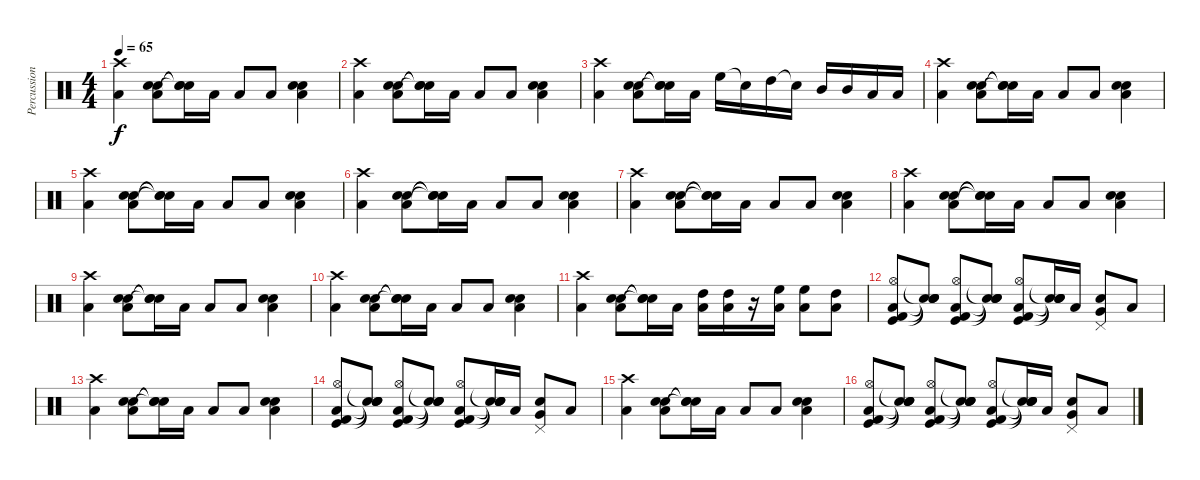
\track ("Percussion" "Percussion") {instrument percussion}
\staff {score}
\articulation defaults
\ts (4 4)
\tempo 65
\clef neutral
\ks c
("Crash high (hit)" "Low Tom (hit)").4{dy f} ("Snare (hit) 2" "Electric Snare (hit)" "Low Tom (hit)").8 ("Snare (hit)"{t} "Snare (hit)"{t} "Snare (hit)"{t}).16 "Low Tom (hit)".16 "Low Tom (hit)".8 "Low Tom (hit)".8 ("Snare (hit) 2" "Electric Snare (hit)" "Low Tom (hit)").4 |
("Crash high (hit)" "Low Tom (hit)").4 ("Snare (hit) 2" "Electric Snare (hit)" "Low Tom (hit)").8 ("Snare (hit)"{t} "Snare (hit)"{t} "Snare (hit)"{t}).16 "Low Tom (hit)".16 "Low Tom (hit)".8 "Low Tom (hit)".8 ("Snare (hit) 2" "Electric Snare (hit)" "Low Tom (hit)").4 |
("Crash high (hit)" "Low Tom (hit)").4 ("Electric Snare (hit)" "Snare (hit) 2" "Low Tom (hit)").8 ("Snare (hit)"{t} "Snare (hit)"{t} "Snare (hit)"{t}).16 "Low Tom (hit)".16 "High Floor Tom (hit)".16 "Snare (hit)"{t}.16 "High Tom (hit)".16 "Snare (hit)"{t}.16 "Mid Tom (hit)".16 "Mid Tom (hit)".16 "Low Tom (hit)".16 "Low Tom (hit)".16 |
("Crash high (hit)" "Low Tom (hit)").4 ("Snare (hit) 2" "Electric Snare (hit)" "Low Tom (hit)").8 ("Snare (hit)"{t} "Snare (hit)"{t} "Snare (hit)"{t}).16 "Low Tom (hit)".16 "Low Tom (hit)".8 "Low Tom (hit)".8 ("Snare (hit) 2" "Electric Snare (hit)" "Low Tom (hit)").4 |
("Crash high (hit)" "Low Tom (hit)").4 ("Snare (hit) 2" "Electric Snare (hit)" "Low Tom (hit)").8 ("Snare (hit)"{t} "Snare (hit)"{t} "Snare (hit)"{t}).16 "Low Tom (hit)".16 "Low Tom (hit)".8 "Low Tom (hit)".8 ("Snare (hit) 2" "Electric Snare (hit)" "Low Tom (hit)").4 |
("Crash high (hit)" "Low Tom (hit)").4 ("Snare (hit) 2" "Electric Snare (hit)" "Low Tom (hit)").8 ("Snare (hit)"{t} "Snare (hit)"{t} "Snare (hit)"{t}).16 "Low Tom (hit)".16 "Low Tom (hit)".8 "Low Tom (hit)".8 ("Snare (hit) 2" "Electric Snare (hit)" "Low Tom (hit)").4 |
("Crash high (hit)" "Low Tom (hit)").4 ("Snare (hit) 2" "Electric Snare (hit)" "Low Tom (hit)").8 ("Snare (hit)"{t} "Snare (hit)"{t} "Snare (hit)"{t}).16 "Low Tom (hit)".16 "Low Tom (hit)".8 "Low Tom (hit)".8 ("Snare (hit) 2" "Electric Snare (hit)" "Low Tom (hit)").4 |
("Crash high (hit)" "Low Tom (hit)").4 ("Snare (hit) 2" "Electric Snare (hit)" "Low Tom (hit)").8 ("Snare (hit)"{t} "Snare (hit)"{t} "Snare (hit)"{t}).16 "Low Tom (hit)".16 "Low Tom (hit)".8 "Low Tom (hit)".8 ("Snare (hit) 2" "Electric Snare (hit)" "Low Tom (hit)").4 |
("Crash high (hit)" "Low Tom (hit)").4 ("Snare (hit) 2" "Electric Snare (hit)" "Low Tom (hit)").8 ("Snare (hit)"{t} "Snare (hit)"{t} "Snare (hit)"{t}).16 "Low Tom (hit)".16 "Low Tom (hit)".8 "Low Tom (hit)".8 ("Snare (hit) 2" "Electric Snare (hit)" "Low Tom (hit)").4 |
("Crash high (hit)" "Low Tom (hit)").4 ("Snare (hit) 2" "Electric Snare (hit)" "Low Tom (hit)").8 ("Snare (hit)"{t} "Snare (hit)"{t} "Snare (hit)"{t}).16 "Low Tom (hit)".16 "Low Tom (hit)".8 "Low Tom (hit)".8 ("Snare (hit) 2" "Electric Snare (hit)" "Low Tom (hit)").4 |
("Crash high (hit)" "Low Tom (hit)").4 ("Snare (hit) 2" "Electric Snare (hit)" "Low Tom (hit)").8 ("Snare (hit)"{t} "Snare (hit)"{t} "Snare (hit)"{t}).16 "Low Tom (hit)".16 ("High Tom (hit)" "Low Tom (hit)").16 ("High Tom (hit)" "Low Tom (hit)").16 r.16 ("High Floor Tom (hit)" "Low Tom (hit)").16 ("High Floor Tom (hit)" "Low Tom (hit)").8 ("Low Tom (hit)" "High Tom (hit)").8 |
("Kick (hit) 2" "Hi-Hat (open)" "Low Tom (hit)" "Kick (hit)").8 ("Snare (hit)"{t} "Snare (hit)"{t} "Snare (hit)"{t} "Snare (hit)"{t}).8 ("Kick (hit) 2" "Hi-Hat (open)" "Low Tom (hit)" "Kick (hit)").8 ("Snare (hit)"{t} "Snare (hit)"{t} "Snare (hit)"{t} "Snare (hit)"{t}).8 ("Kick (hit) 2" "Hi-Hat (open)" "Low Tom (hit)" "Kick (hit)").8 ("Snare (hit)"{t} "Snare (hit)"{t} "Snare (hit)"{t} "Snare (hit)"{t}).16 "Low Tom (hit)".16 ("Pedal Hi-Hat (hit)" "Very Low Tom (hit)" "Electric Snare (hit)").8 "Low Tom (hit)".8 |
("Crash high (hit)" "Low Tom (hit)").4 ("Snare (hit) 2" "Electric Snare (hit)" "Low Tom (hit)").8 ("Snare (hit)"{t} "Snare (hit)"{t} "Snare (hit)"{t}).16 "Low Tom (hit)".16 "Low Tom (hit)".8 "Low Tom (hit)".8 ("Snare (hit) 2" "Electric Snare (hit)" "Low Tom (hit)").4 |
("Kick (hit) 2" "Hi-Hat (open)" "Low Tom (hit)" "Kick (hit)").8 ("Snare (hit)"{t} "Snare (hit)"{t} "Snare (hit)"{t} "Snare (hit)"{t}).8 ("Kick (hit) 2" "Hi-Hat (open)" "Low Tom (hit)" "Kick (hit)").8 ("Snare (hit)"{t} "Snare (hit)"{t} "Snare (hit)"{t} "Snare (hit)"{t}).8 ("Kick (hit) 2" "Hi-Hat (open)" "Low Tom (hit)" "Kick (hit)").8 ("Snare (hit)"{t} "Snare (hit)"{t} "Snare (hit)"{t} "Snare (hit)"{t}).16 "Low Tom (hit)".16 ("Pedal Hi-Hat (hit)" "Very Low Tom (hit)" "Electric Snare (hit)").8 "Low Tom (hit)".8 |
("Crash high (hit)" "Low Tom (hit)").4 ("Snare (hit) 2" "Electric Snare (hit)" "Low Tom (hit)").8 ("Snare (hit)"{t} "Snare (hit)"{t} "Snare (hit)"{t}).16 "Low Tom (hit)".16 "Low Tom (hit)".8 "Low Tom (hit)".8 ("Snare (hit) 2" "Electric Snare (hit)" "Low Tom (hit)").4 |
("Kick (hit) 2" "Hi-Hat (open)" "Low Tom (hit)" "Kick (hit)").8 ("Snare (hit)"{t} "Snare (hit)"{t} "Snare (hit)"{t} "Snare (hit)"{t}).8 ("Kick (hit) 2" "Hi-Hat (open)" "Low Tom (hit)" "Kick (hit)").8 ("Snare (hit)"{t} "Snare (hit)"{t} "Snare (hit)"{t} "Snare (hit)"{t}).8 ("Kick (hit) 2" "Hi-Hat (open)" "Low Tom (hit)" "Kick (hit)").8 ("Snare (hit)"{t} "Snare (hit)"{t} "Snare (hit)"{t} "Snare (hit)"{t}).16 "Low Tom (hit)".16 ("Pedal Hi-Hat (hit)" "Very Low Tom (hit)" "Electric Snare (hit)").8 "Low Tom (hit)".8
